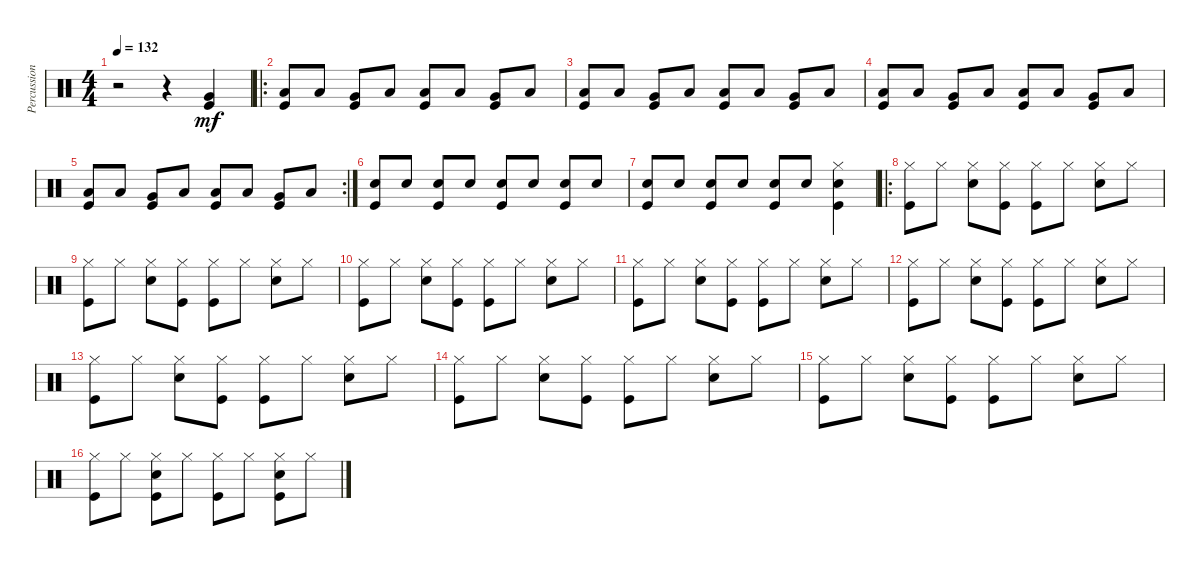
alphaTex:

\track ("Percussions" "Percussion") {instrument percussion}
\staff {score}
\articulation defaults
\ts (4 4)
\tempo 132
\clef neutral
\ks c
r.2{dy mf} r.4 ("Very Low Tom (hit)" "Kick (hit)").4 |
\ro
("Low Floor Tom (hit)" "Kick (hit)").8 "Low Floor Tom (hit)".8 ("Very Low Tom (hit)" "Kick (hit)").8 "Low Floor Tom (hit)".8 ("Low Floor Tom (hit)" "Kick (hit)").8 "Low Floor Tom (hit)".8 ("Very Low Tom (hit)" "Kick (hit)").8 "Low Floor Tom (hit)".8 |
("Low Floor Tom (hit)" "Kick (hit)").8 "Low Floor Tom (hit)".8 ("Very Low Tom (hit)" "Kick (hit)").8 "Low Floor Tom (hit)".8 ("Low Floor Tom (hit)" "Kick (hit)").8 "Low Floor Tom (hit)".8 ("Very Low Tom (hit)" "Kick (hit)").8 "Low Floor Tom (hit)".8 |
("Low Floor Tom (hit)" "Kick (hit)").8 "Low Floor Tom (hit)".8 ("Very Low Tom (hit)" "Kick (hit)").8 "Low Floor Tom (hit)".8 ("Low Floor Tom (hit)" "Kick (hit)").8 "Low Floor Tom (hit)".8 ("Very Low Tom (hit)" "Kick (hit)").8 "Low Floor Tom (hit)".8 |
\rc 2
("Low Floor Tom (hit)" "Kick (hit)").8 "Low Floor Tom (hit)".8 ("Very Low Tom (hit)" "Kick (hit)").8 "Low Floor Tom (hit)".8 ("Low Floor Tom (hit)" "Kick (hit)").8 "Low Floor Tom (hit)".8 ("Very Low Tom (hit)" "Kick (hit)").8 "Low Floor Tom (hit)".8 |
("Snare (hit) 2" "Kick (hit)").8 "Snare (hit) 2".8 ("Snare (hit) 2" "Kick (hit)").8 "Snare (hit) 2".8 ("Snare (hit) 2" "Kick (hit)").8 "Snare (hit) 2".8 ("Snare (hit) 2" "Kick (hit)").8 "Snare (hit) 2".8 |
("Snare (hit) 2" "Kick (hit)").8 "Snare (hit) 2".8 ("Snare (hit) 2" "Kick (hit)").8 "Snare (hit) 2".8 ("Snare (hit) 2" "Kick (hit)").8 "Snare (hit) 2".8 ("Hi-Hat (closed)" "Snare (hit) 2" "Kick (hit)").4 |
\ro
("Hi-Hat (closed)" "Kick (hit)").8 "Hi-Hat (closed)".8 ("Hi-Hat (closed)" "Snare (hit) 2").8 ("Hi-Hat (closed)" "Kick (hit)").8 ("Hi-Hat (closed)" "Kick (hit)").8 "Hi-Hat (closed)".8 ("Hi-Hat (closed)" "Snare (hit) 2").8 "Hi-Hat (closed)".8 |
("Hi-Hat (closed)" "Kick (hit)").8 "Hi-Hat (closed)".8 ("Hi-Hat (closed)" "Snare (hit) 2").8 ("Hi-Hat (closed)" "Kick (hit)").8 ("Hi-Hat (closed)" "Kick (hit)").8 "Hi-Hat (closed)".8 ("Hi-Hat (closed)" "Snare (hit) 2").8 "Hi-Hat (closed)".8 |
("Hi-Hat (closed)" "Kick (hit)").8 "Hi-Hat (closed)".8 ("Hi-Hat (closed)" "Snare (hit) 2").8 ("Hi-Hat (closed)" "Kick (hit)").8 ("Hi-Hat (closed)" "Kick (hit)").8 "Hi-Hat (closed)".8 ("Hi-Hat (closed)" "Snare (hit) 2").8 "Hi-Hat (closed)".8 |
("Hi-Hat (closed)" "Kick (hit)").8 "Hi-Hat (closed)".8 ("Hi-Hat (closed)" "Snare (hit) 2").8 ("Hi-Hat (closed)" "Kick (hit)").8 ("Hi-Hat (closed)" "Kick (hit)").8 "Hi-Hat (closed)".8 ("Hi-Hat (closed)" "Snare (hit) 2").8 "Hi-Hat (closed)".8 |
("Hi-Hat (closed)" "Kick (hit)").8 "Hi-Hat (closed)".8 ("Hi-Hat (closed)" "Snare (hit) 2").8 ("Hi-Hat (closed)" "Kick (hit)").8 ("Hi-Hat (closed)" "Kick (hit)").8 "Hi-Hat (closed)".8 ("Hi-Hat (closed)" "Snare (hit) 2").8 "Hi-Hat (closed)".8 |
("Hi-Hat (closed)" "Kick (hit)").8 "Hi-Hat (closed)".8 ("Hi-Hat (closed)" "Snare (hit) 2").8 ("Hi-Hat (closed)" "Kick (hit)").8 ("Hi-Hat (closed)" "Kick (hit)").8 "Hi-Hat (closed)".8 ("Hi-Hat (closed)" "Snare (hit) 2").8 "Hi-Hat (closed)".8 |
("Hi-Hat (closed)" "Kick (hit)").8 "Hi-Hat (closed)".8 ("Hi-Hat (closed)" "Snare (hit) 2").8 ("Hi-Hat (closed)" "Kick (hit)").8 ("Hi-Hat (closed)" "Kick (hit)").8 "Hi-Hat (closed)".8 ("Hi-Hat (closed)" "Snare (hit) 2").8 "Hi-Hat (closed)".8 |
("Hi-Hat (closed)" "Kick (hit)").8 "Hi-Hat (closed)".8 ("Hi-Hat (closed)" "Snare (hit) 2").8 ("Hi-Hat (closed)" "Kick (hit)").8 ("Hi-Hat (closed)" "Kick (hit)").8 "Hi-Hat (closed)".8 ("Hi-Hat (closed)" "Snare (hit) 2").8 "Hi-Hat (closed)".8 |
("Hi-Hat (closed)" "Kick (hit)").8 "Hi-Hat (closed)".8 ("Hi-Hat (closed)" "Snare (hit) 2" "Kick (hit)").8 "Hi-Hat (closed)".8 ("Hi-Hat (closed)" "Kick (hit)").8 "Hi-Hat (closed)".8 ("Hi-Hat (closed)" "Snare (hit) 2" "Kick (hit)").8 "Hi-Hat (closed)".8
